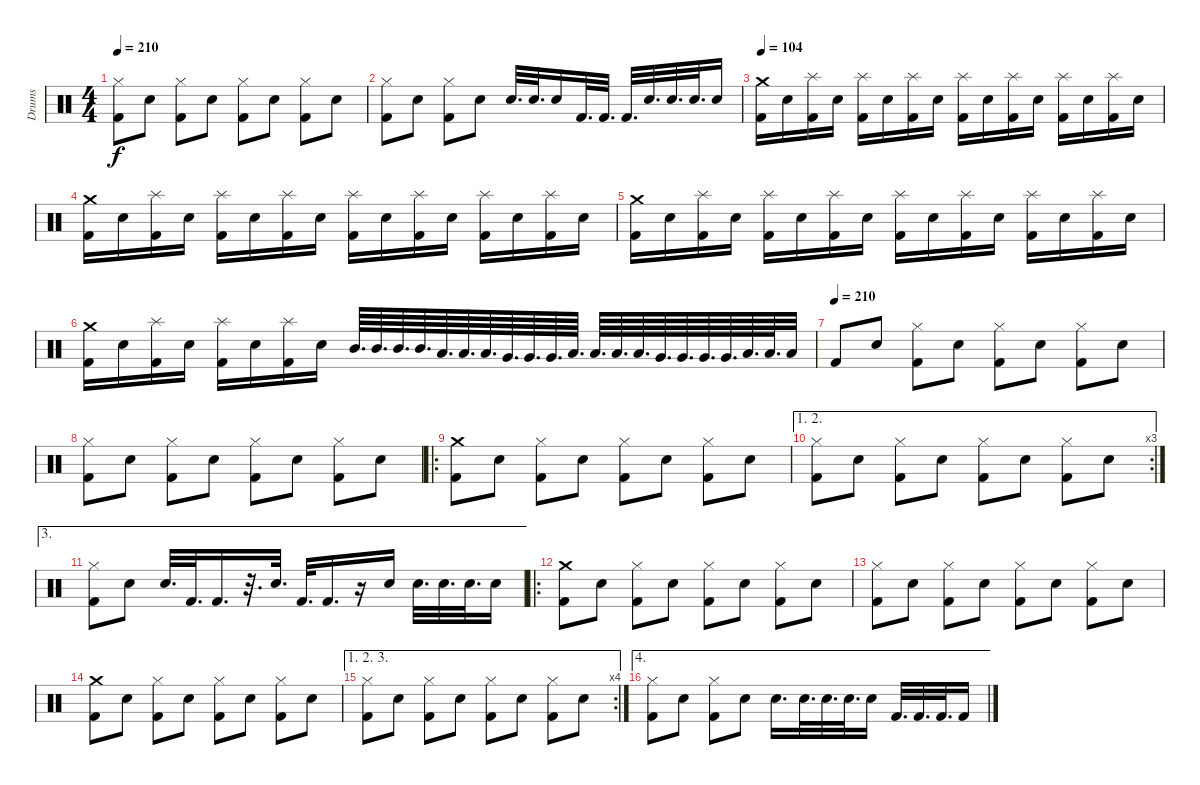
\track ("Drums" "Drums") {instrument percussion}
\staff {score}
\articulation defaults
\ts (4 4)
\tempo 210
\clef neutral
\ks c
("Hi-Hat (closed)" "Kick (hit) 2").8{dy f} "Electric Snare (hit)".8 ("Hi-Hat (closed)" "Kick (hit) 2").8 "Electric Snare (hit)".8 ("Hi-Hat (closed)" "Kick (hit) 2").8 "Electric Snare (hit)".8 ("Hi-Hat (closed)" "Kick (hit) 2").8 "Electric Snare (hit)".8 |
("Hi-Hat (closed)" "Kick (hit) 2").8 "Electric Snare (hit)".8 ("Hi-Hat (closed)" "Kick (hit) 2").8 "Electric Snare (hit)".8 "Electric Snare (hit)".32{d} "Electric Snare (hit)".32{d} "Electric Snare (hit)".16 "Kick (hit) 2".32{d} "Kick (hit) 2".32{d} "Kick (hit) 2".32{d} "Electric Snare (hit)".32{d} "Electric Snare (hit)".32{d} "Snare (hit) 2".32{d} "Snare (hit) 2".16 |
\tempo 104
("Crash medium (hit)" "Kick (hit) 2").16 "Electric Snare (hit)".16 ("Splash (hit)" "Kick (hit) 2").16 "Electric Snare (hit)".16 ("Splash (hit)" "Kick (hit) 2").16 "Electric Snare (hit)".16 ("Splash (hit)" "Kick (hit) 2").16 "Electric Snare (hit)".16 ("Splash (hit)" "Kick (hit) 2").16 "Electric Snare (hit)".16 ("Splash (hit)" "Kick (hit) 2").16 "Electric Snare (hit)".16 ("Splash (hit)" "Kick (hit) 2").16 "Electric Snare (hit)".16 ("Splash (hit)" "Kick (hit) 2").16 "Electric Snare (hit)".16 |
("Crash medium (hit)" "Kick (hit) 2").16 "Electric Snare (hit)".16 ("Splash (hit)" "Kick (hit) 2").16 "Electric Snare (hit)".16 ("Splash (hit)" "Kick (hit) 2").16 "Electric Snare (hit)".16 ("Splash (hit)" "Kick (hit) 2").16 "Electric Snare (hit)".16 ("Splash (hit)" "Kick (hit) 2").16 "Electric Snare (hit)".16 ("Splash (hit)" "Kick (hit) 2").16 "Electric Snare (hit)".16 ("Splash (hit)" "Kick (hit) 2").16 "Electric Snare (hit)".16 ("Splash (hit)" "Kick (hit) 2").16 "Electric Snare (hit)".16 |
("Crash medium (hit)" "Kick (hit) 2").16 "Electric Snare (hit)".16 ("Splash (hit)" "Kick (hit) 2").16 "Electric Snare (hit)".16 ("Splash (hit)" "Kick (hit) 2").16 "Electric Snare (hit)".16 ("Splash (hit)" "Kick (hit) 2").16 "Electric Snare (hit)".16 ("Splash (hit)" "Kick (hit) 2").16 "Electric Snare (hit)".16 ("Splash (hit)" "Kick (hit) 2").16 "Electric Snare (hit)".16 ("Splash (hit)" "Kick (hit) 2").16 "Electric Snare (hit)".16 ("Splash (hit)" "Kick (hit) 2").16 "Electric Snare (hit)".16 |
("Crash medium (hit)" "Kick (hit) 2").16 "Electric Snare (hit)".16 ("Splash (hit)" "Kick (hit) 2").16 "Electric Snare (hit)".16 ("Splash (hit)" "Kick (hit) 2").16 "Electric Snare (hit)".16 ("Splash (hit)" "Kick (hit) 2").16 "Electric Snare (hit)".16 "Mid Tom (hit)".64{d} "Mid Tom (hit)".64{d} "Mid Tom (hit)".64{d} "Mid Tom (hit)".64{d} "Low Tom (hit)".64{d} "Low Tom (hit)".64{d} "Low Tom (hit)".64{d} "Very Low Tom (hit)".64{d} "Very Low Tom (hit)".64{d} "Very Low Tom (hit)".64{d} "Low Tom (hit)".64{d} "Low Tom (hit)".64{d} "Low Tom (hit)".64{d} "Low Tom (hit)".64{d} "Very Low Tom (hit)".64{d} "Very Low Tom (hit)".64{d} "Very Low Tom (hit)".64{d} "Very Low Tom (hit)".64{d} "Low Floor Tom (hit)".64{d} "Low Floor Tom (hit)".64{d} "Low Floor Tom (hit)".32 |
\tempo (210)
"Kick (hit) 2".8 "Electric Snare (hit)".8 ("Hi-Hat (closed)" "Kick (hit) 2").8 "Electric Snare (hit)".8 ("Hi-Hat (closed)" "Kick (hit) 2").8 "Electric Snare (hit)".8 ("Hi-Hat (closed)" "Kick (hit) 2").8 "Electric Snare (hit)".8 |
("Hi-Hat (closed)" "Kick (hit) 2").8 "Electric Snare (hit)".8 ("Hi-Hat (closed)" "Kick (hit) 2").8 "Electric Snare (hit)".8 ("Hi-Hat (closed)" "Kick (hit) 2").8 "Electric Snare (hit)".8 ("Hi-Hat (closed)" "Kick (hit) 2").8 "Electric Snare (hit)".8 |
\ro
("Crash medium (hit)" "Kick (hit) 2").8 "Electric Snare (hit)".8 ("Hi-Hat (closed)" "Kick (hit) 2").8 "Electric Snare (hit)".8 ("Hi-Hat (closed)" "Kick (hit) 2").8 "Electric Snare (hit)".8 ("Hi-Hat (closed)" "Kick (hit) 2").8 "Electric Snare (hit)".8 |
\ae (1 2)
\rc 3
("Hi-Hat (closed)" "Kick (hit) 2").8 "Electric Snare (hit)".8 ("Hi-Hat (closed)" "Kick (hit) 2").8 "Electric Snare (hit)".8 ("Hi-Hat (closed)" "Kick (hit) 2").8 "Electric Snare (hit)".8 ("Hi-Hat (closed)" "Kick (hit) 2").8 "Electric Snare (hit)".8 |
\ae 3
("Hi-Hat (closed)" "Kick (hit) 2").8 "Electric Snare (hit)".8 "Snare (hit) 2".32{d} "Kick (hit) 2".32{d} "Kick (hit) 2".16{d} r.32{d} "Snare (hit) 2".32{d} "Kick (hit) 2".32{d} "Kick (hit) 2".16{d} r.16 "Snare (hit) 2".16 "Electric Snare (hit)".32{d} "Electric Snare (hit)".32{d} "Electric Snare (hit)".32{d} "Electric Snare (hit)".16 |
\ro
("Crash medium (hit)" "Kick (hit) 2").8 "Electric Snare (hit)".8 ("Hi-Hat (closed)" "Kick (hit) 2").8 "Electric Snare (hit)".8 ("Hi-Hat (closed)" "Kick (hit) 2").8 "Electric Snare (hit)".8 ("Hi-Hat (closed)" "Kick (hit) 2").8 "Electric Snare (hit)".8 |
("Hi-Hat (closed)" "Kick (hit) 2").8 "Electric Snare (hit)".8 ("Hi-Hat (closed)" "Kick (hit) 2").8 "Electric Snare (hit)".8 ("Hi-Hat (closed)" "Kick (hit) 2").8 "Electric Snare (hit)".8 ("Hi-Hat (closed)" "Kick (hit) 2").8 "Electric Snare (hit)".8 |
("Crash medium (hit)" "Kick (hit) 2").8 "Electric Snare (hit)".8 ("Hi-Hat (closed)" "Kick (hit) 2").8 "Electric Snare (hit)".8 ("Hi-Hat (closed)" "Kick (hit) 2").8 "Electric Snare (hit)".8 ("Hi-Hat (closed)" "Kick (hit) 2").8 "Electric Snare (hit)".8 |
\ae (1 2 3)
\rc 4
("Hi-Hat (closed)" "Kick (hit) 2").8 "Electric Snare (hit)".8 ("Hi-Hat (closed)" "Kick (hit) 2").8 "Electric Snare (hit)".8 ("Hi-Hat (closed)" "Kick (hit) 2").8 "Electric Snare (hit)".8 ("Hi-Hat (closed)" "Kick (hit) 2").8 "Electric Snare (hit)".8 |
\ae 4
("Hi-Hat (closed)" "Kick (hit) 2").8 "Electric Snare (hit)".8 ("Hi-Hat (closed)" "Kick (hit) 2").8 "Electric Snare (hit)".8 "Electric Snare (hit)".16{d} "Electric Snare (hit)".32{d} "Electric Snare (hit)".32{d} "Electric Snare (hit)".32{d} "Electric Snare (hit)".16 "Kick (hit) 2".32{d} "Kick (hit) 2".32{d} "Kick (hit) 2".32{d} "Kick (hit) 2".16
